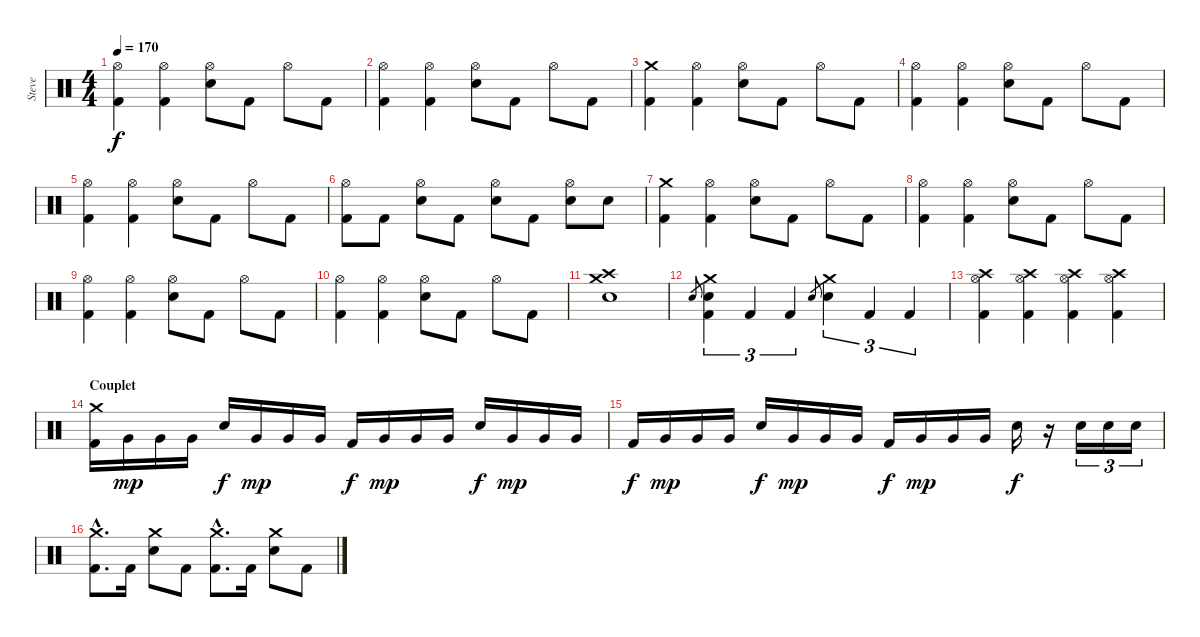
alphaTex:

\track ("Steve" "Steve") {instrument percussion}
\staff {score}
\articulation defaults
\ts (4 4)
\tempo 170
\clef neutral
\ks c
("Hi-Hat (open)" "Kick (hit) 2").4{dy f} ("Hi-Hat (open)" "Kick (hit) 2").4 ("Electric Snare (hit)" "Hi-Hat (open)").8 "Kick (hit) 2".8 "Hi-Hat (open)".8 "Kick (hit) 2".8 |
("Hi-Hat (open)" "Kick (hit) 2").4 ("Hi-Hat (open)" "Kick (hit) 2").4 ("Electric Snare (hit)" "Hi-Hat (open)").8 "Kick (hit) 2".8 "Hi-Hat (open)".8 "Kick (hit) 2".8 |
("Crash medium (hit)" "Kick (hit) 2").4 ("Hi-Hat (open)" "Kick (hit) 2").4 ("Electric Snare (hit)" "Hi-Hat (open)").8 "Kick (hit) 2".8 "Hi-Hat (open)".8 "Kick (hit) 2".8 |
("Hi-Hat (open)" "Kick (hit) 2").4 ("Hi-Hat (open)" "Kick (hit) 2").4 ("Electric Snare (hit)" "Hi-Hat (open)").8 "Kick (hit) 2".8 "Hi-Hat (open)".8 "Kick (hit) 2".8 |
("Hi-Hat (open)" "Kick (hit) 2").4 ("Hi-Hat (open)" "Kick (hit) 2").4 ("Electric Snare (hit)" "Hi-Hat (open)").8 "Kick (hit) 2".8 "Hi-Hat (open)".8 "Kick (hit) 2".8 |
("Hi-Hat (open)" "Kick (hit) 2").8 "Kick (hit) 2".8 ("Hi-Hat (open)" "Electric Snare (hit)").8 "Kick (hit) 2".8 ("Hi-Hat (open)" "Electric Snare (hit)").8 "Kick (hit) 2".8 ("Hi-Hat (open)" "Electric Snare (hit)").8 "Electric Snare (hit)".8 |
("Crash medium (hit)" "Kick (hit) 2").4 ("Hi-Hat (open)" "Kick (hit) 2").4 ("Electric Snare (hit)" "Hi-Hat (open)").8 "Kick (hit) 2".8 "Hi-Hat (open)".8 "Kick (hit) 2".8 |
("Hi-Hat (open)" "Kick (hit) 2").4 ("Hi-Hat (open)" "Kick (hit) 2").4 ("Electric Snare (hit)" "Hi-Hat (open)").8 "Kick (hit) 2".8 "Hi-Hat (open)".8 "Kick (hit) 2".8 |
("Hi-Hat (open)" "Kick (hit) 2").4 ("Hi-Hat (open)" "Kick (hit) 2").4 ("Electric Snare (hit)" "Hi-Hat (open)").8 "Kick (hit) 2".8 "Hi-Hat (open)".8 "Kick (hit) 2".8 |
("Hi-Hat (open)" "Kick (hit) 2").4 ("Hi-Hat (open)" "Kick (hit) 2").4 ("Electric Snare (hit)" "Hi-Hat (open)").8 "Kick (hit) 2".8 "Hi-Hat (open)".8 "Kick (hit) 2".8 |
("Electric Snare (hit)" "Crash high (hit)" "Crash medium (hit)").1 |
"Electric Snare (hit)".8{gr} ("Crash medium (hit)" "Electric Snare (hit)" "Kick (hit) 2").4{tu (3 2)} "Kick (hit) 2".4{tu (3 2)} "Kick (hit) 2".4{tu (3 2)} "Electric Snare (hit)".8{gr} ("Crash medium (hit)" "Electric Snare (hit)").4{tu (3 2)} "Kick (hit) 2".4{tu (3 2)} "Kick (hit) 2".4{tu (3 2)} |
("Crash high (hit)" "Hi-Hat (open)" "Kick (hit) 2").4 ("Crash high (hit)" "Hi-Hat (open)" "Kick (hit) 2").4 ("Crash high (hit)" "Hi-Hat (open)" "Kick (hit) 2").4 ("Crash high (hit)" "Hi-Hat (open)" "Kick (hit) 2").4 |
\section ("" "Couplet")
("Crash medium (hit)" "Kick (hit) 2").16 "Very Low Tom (hit)".16{dy mp} "Very Low Tom (hit)".16 "Very Low Tom (hit)".16 "Electric Snare (hit)".16{dy f} "Very Low Tom (hit)".16{dy mp} "Very Low Tom (hit)".16 "Very Low Tom (hit)".16 "Kick (hit) 2".16{dy f} "Very Low Tom (hit)".16{dy mp} "Very Low Tom (hit)".16 "Very Low Tom (hit)".16 "Electric Snare (hit)".16{dy f} "Very Low Tom (hit)".16{dy mp} "Very Low Tom (hit)".16 "Very Low Tom (hit)".16 |
"Kick (hit) 2".16{dy f} "Very Low Tom (hit)".16{dy mp} "Very Low Tom (hit)".16 "Very Low Tom (hit)".16 "Electric Snare (hit)".16{dy f} "Very Low Tom (hit)".16{dy mp} "Very Low Tom (hit)".16 "Very Low Tom (hit)".16 "Kick (hit) 2".16{dy f} "Very Low Tom (hit)".16{dy mp} "Very Low Tom (hit)".16 "Very Low Tom (hit)".16 "Electric Snare (hit)".16{dy f} r.16 "Electric Snare (hit)".16{tu (3 2)} "Electric Snare (hit)".16{tu (3 2)} "Electric Snare (hit)".16{tu (3 2)} |
("Crash medium (hit)"{hac} "Kick (hit) 2"{hac}).8{d} "Kick (hit) 2".16 ("Crash medium (hit)" "Electric Snare (hit)").8 "Kick (hit) 2".8 ("Crash medium (hit)"{hac} "Kick (hit) 2"{hac}).8{d} "Kick (hit) 2".16 ("Crash medium (hit)" "Electric Snare (hit)").8 "Kick (hit) 2".8
